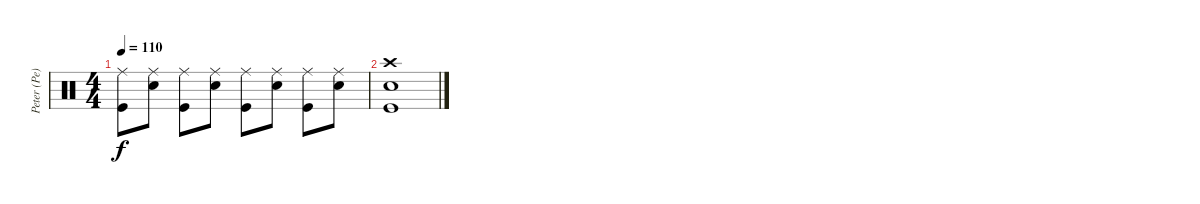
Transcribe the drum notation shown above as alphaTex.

\track ("Peter (Pe) Schorowsky" "Peter (Pe)") {instrument percussion}
\staff {score}
\articulation defaults
\ts (4 4)
\tempo 110
\clef neutral
\ks c
("Ride (middle)" "Kick (hit)").8{dy f} ("Ride (middle)" "Snare (hit) 2").8 ("Ride (middle)" "Kick (hit)").8 ("Ride (middle)" "Snare (hit) 2").8 ("Ride (middle)" "Kick (hit)").8 ("Ride (middle)" "Snare (hit) 2").8 ("Ride (middle)" "Kick (hit)").8 ("Ride (middle)" "Snare (hit) 2").8 |
("Snare (hit) 2" "Crash high (hit)" "Kick (hit)").1
